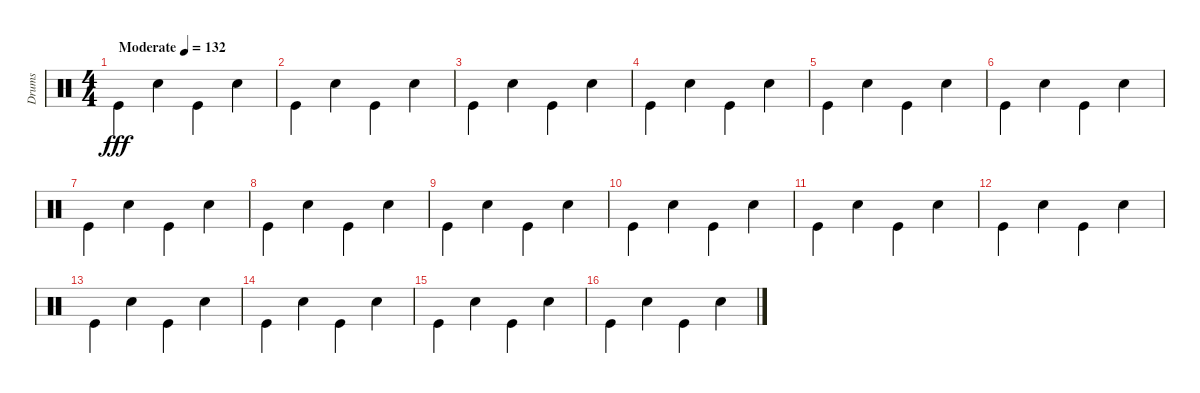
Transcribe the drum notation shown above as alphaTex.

\track ("Drums" "Drums") {instrument percussion}
\staff {score}
\articulation defaults
\ts (4 4)
\tempo (132 "Moderate")
\clef neutral
\ks c "Kick (hit)".4{dy fff beam Down} "Snare (hit) 2".4 "Kick (hit)".4{beam Down} "Snare (hit) 2".4
|
"Kick (hit)".4{beam Down} "Snare (hit) 2".4 "Kick (hit)".4{beam Down} "Snare (hit) 2".4 |
"Kick (hit)".4{beam Down} "Snare (hit) 2".4 "Kick (hit)".4{beam Down} "Snare (hit) 2".4 |
"Kick (hit)".4{beam Down} "Snare (hit) 2".4 "Kick (hit)".4{beam Down} "Snare (hit) 2".4 |
"Kick (hit)".4{beam Down} "Snare (hit) 2".4 "Kick (hit)".4{beam Down} "Snare (hit) 2".4 |
"Kick (hit)".4{beam Down} "Snare (hit) 2".4 "Kick (hit)".4{beam Down} "Snare (hit) 2".4 |
"Kick (hit)".4{beam Down} "Snare (hit) 2".4 "Kick (hit)".4{beam Down} "Snare (hit) 2".4 |
"Kick (hit)".4{beam Down} "Snare (hit) 2".4 "Kick (hit)".4{beam Down} "Snare (hit) 2".4 |
"Kick (hit)".4{beam Down} "Snare (hit) 2".4 "Kick (hit)".4{beam Down} "Snare (hit) 2".4 |
"Kick (hit)".4{beam Down} "Snare (hit) 2".4 "Kick (hit)".4{beam Down} "Snare (hit) 2".4 |
"Kick (hit)".4{beam Down} "Snare (hit) 2".4 "Kick (hit)".4{beam Down} "Snare (hit) 2".4 |
"Kick (hit)".4{beam Down} "Snare (hit) 2".4 "Kick (hit)".4{beam Down} "Snare (hit) 2".4 |
"Kick (hit)".4{beam Down} "Snare (hit) 2".4 "Kick (hit)".4{beam Down} "Snare (hit) 2".4 |
"Kick (hit)".4{beam Down} "Snare (hit) 2".4 "Kick (hit)".4{beam Down} "Snare (hit) 2".4 |
"Kick (hit)".4{beam Down} "Snare (hit) 2".4 "Kick (hit)".4{beam Down} "Snare (hit) 2".4 |
"Kick (hit)".4{beam Down} "Snare (hit) 2".4 "Kick (hit)".4{beam Down} "Snare (hit) 2".4
